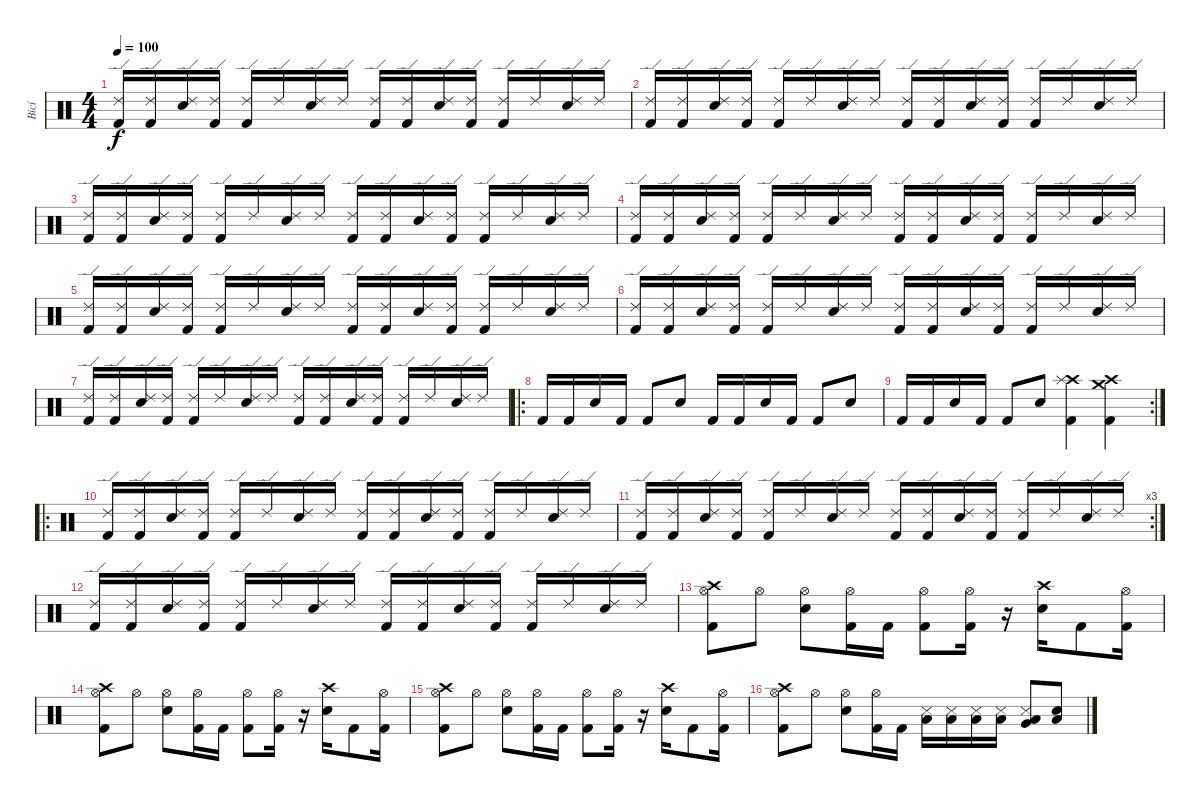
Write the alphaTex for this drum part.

\track ("Bicí" "Bicí") {instrument percussion}
\staff {score}
\articulation defaults
\ts (4 4)
\tempo 100
\clef neutral
\ks c
("Kick (hit) 2" "Ride (edge) 2").16{dy f} ("Kick (hit) 2" "Ride (edge) 2").16 ("Ride (edge) 2" "Snare (hit) 2").16 ("Kick (hit) 2" "Ride (edge) 2").16 ("Kick (hit) 2" "Ride (edge) 2").16 "Ride (edge) 2".16 ("Ride (edge) 2" "Snare (hit) 2").16 "Ride (edge) 2".16 ("Kick (hit) 2" "Ride (edge) 2").16 ("Kick (hit) 2" "Ride (edge) 2").16 ("Ride (edge) 2" "Snare (hit) 2").16 ("Kick (hit) 2" "Ride (edge) 2").16 ("Kick (hit) 2" "Ride (edge) 2").16 "Ride (edge) 2".16 ("Ride (edge) 2" "Snare (hit) 2").16 "Ride (edge) 2".16 |
("Kick (hit) 2" "Ride (edge) 2").16 ("Kick (hit) 2" "Ride (edge) 2").16 ("Ride (edge) 2" "Snare (hit) 2").16 ("Kick (hit) 2" "Ride (edge) 2").16 ("Kick (hit) 2" "Ride (edge) 2").16 "Ride (edge) 2".16 ("Ride (edge) 2" "Snare (hit) 2").16 "Ride (edge) 2".16 ("Kick (hit) 2" "Ride (edge) 2").16 ("Kick (hit) 2" "Ride (edge) 2").16 ("Ride (edge) 2" "Snare (hit) 2").16 ("Kick (hit) 2" "Ride (edge) 2").16 ("Kick (hit) 2" "Ride (edge) 2").16 "Ride (edge) 2".16 ("Ride (edge) 2" "Snare (hit) 2").16 "Ride (edge) 2".16 |
("Kick (hit) 2" "Ride (edge) 2").16 ("Kick (hit) 2" "Ride (edge) 2").16 ("Ride (edge) 2" "Snare (hit) 2").16 ("Kick (hit) 2" "Ride (edge) 2").16 ("Kick (hit) 2" "Ride (edge) 2").16 "Ride (edge) 2".16 ("Ride (edge) 2" "Snare (hit) 2").16 "Ride (edge) 2".16 ("Kick (hit) 2" "Ride (edge) 2").16 ("Kick (hit) 2" "Ride (edge) 2").16 ("Ride (edge) 2" "Snare (hit) 2").16 ("Kick (hit) 2" "Ride (edge) 2").16 ("Kick (hit) 2" "Ride (edge) 2").16 "Ride (edge) 2".16 ("Ride (edge) 2" "Snare (hit) 2").16 "Ride (edge) 2".16 |
("Kick (hit) 2" "Ride (edge) 2").16 ("Kick (hit) 2" "Ride (edge) 2").16 ("Ride (edge) 2" "Snare (hit) 2").16 ("Kick (hit) 2" "Ride (edge) 2").16 ("Kick (hit) 2" "Ride (edge) 2").16 "Ride (edge) 2".16 ("Ride (edge) 2" "Snare (hit) 2").16 "Ride (edge) 2".16 ("Kick (hit) 2" "Ride (edge) 2").16 ("Kick (hit) 2" "Ride (edge) 2").16 ("Ride (edge) 2" "Snare (hit) 2").16 ("Kick (hit) 2" "Ride (edge) 2").16 ("Kick (hit) 2" "Ride (edge) 2").16 "Ride (edge) 2".16 ("Ride (edge) 2" "Snare (hit) 2").16 "Ride (edge) 2".16 |
("Kick (hit) 2" "Ride (edge) 2").16 ("Kick (hit) 2" "Ride (edge) 2").16 ("Ride (edge) 2" "Snare (hit) 2").16 ("Kick (hit) 2" "Ride (edge) 2").16 ("Kick (hit) 2" "Ride (edge) 2").16 "Ride (edge) 2".16 ("Ride (edge) 2" "Snare (hit) 2").16 "Ride (edge) 2".16 ("Kick (hit) 2" "Ride (edge) 2").16 ("Kick (hit) 2" "Ride (edge) 2").16 ("Ride (edge) 2" "Snare (hit) 2").16 ("Kick (hit) 2" "Ride (edge) 2").16 ("Kick (hit) 2" "Ride (edge) 2").16 "Ride (edge) 2".16 ("Ride (edge) 2" "Snare (hit) 2").16 "Ride (edge) 2".16 |
("Kick (hit) 2" "Ride (edge) 2").16 ("Kick (hit) 2" "Ride (edge) 2").16 ("Ride (edge) 2" "Snare (hit) 2").16 ("Kick (hit) 2" "Ride (edge) 2").16 ("Kick (hit) 2" "Ride (edge) 2").16 "Ride (edge) 2".16 ("Ride (edge) 2" "Snare (hit) 2").16 "Ride (edge) 2".16 ("Kick (hit) 2" "Ride (edge) 2").16 ("Kick (hit) 2" "Ride (edge) 2").16 ("Ride (edge) 2" "Snare (hit) 2").16 ("Kick (hit) 2" "Ride (edge) 2").16 ("Kick (hit) 2" "Ride (edge) 2").16 "Ride (edge) 2".16 ("Ride (edge) 2" "Snare (hit) 2").16 "Ride (edge) 2".16 |
("Kick (hit) 2" "Ride (edge) 2").16 ("Kick (hit) 2" "Ride (edge) 2").16 ("Ride (edge) 2" "Snare (hit) 2").16 ("Kick (hit) 2" "Ride (edge) 2").16 ("Kick (hit) 2" "Ride (edge) 2").16 "Ride (edge) 2".16 ("Ride (edge) 2" "Snare (hit) 2").16 "Ride (edge) 2".16 ("Kick (hit) 2" "Ride (edge) 2").16 ("Kick (hit) 2" "Ride (edge) 2").16 ("Ride (edge) 2" "Snare (hit) 2").16 ("Kick (hit) 2" "Ride (edge) 2").16 ("Kick (hit) 2" "Ride (edge) 2").16 "Ride (edge) 2".16 ("Ride (edge) 2" "Snare (hit) 2").16 "Ride (edge) 2".16 |
\ro "Kick (hit) 2".16 "Kick (hit) 2".16 "Snare (hit) 2".16 "Kick (hit) 2".16 "Kick (hit) 2".8 "Snare (hit) 2".8 "Kick (hit) 2".16 "Kick (hit) 2".16 "Snare (hit) 2".16 "Kick (hit) 2".16 "Kick (hit) 2".8 "Snare (hit) 2".8
|
\rc 2 "Kick (hit) 2".16 "Kick (hit) 2".16 "Snare (hit) 2".16 "Kick (hit) 2".16 "Kick (hit) 2".8 "Snare (hit) 2".8
("Kick (hit) 2" "Crash high (hit)" "Splash (hit)").4 ("Kick (hit) 2" "Crash high (hit)" "Crash medium (hit)").4 |
\ro
("Kick (hit) 2" "Ride (edge) 2").16 ("Kick (hit) 2" "Ride (edge) 2").16 ("Ride (edge) 2" "Snare (hit) 2").16 ("Kick (hit) 2" "Ride (edge) 2").16 ("Kick (hit) 2" "Ride (edge) 2").16 "Ride (edge) 2".16 ("Ride (edge) 2" "Snare (hit) 2").16 "Ride (edge) 2".16 ("Kick (hit) 2" "Ride (edge) 2").16 ("Kick (hit) 2" "Ride (edge) 2").16 ("Ride (edge) 2" "Snare (hit) 2").16 ("Kick (hit) 2" "Ride (edge) 2").16 ("Kick (hit) 2" "Ride (edge) 2").16 "Ride (edge) 2".16 ("Ride (edge) 2" "Snare (hit) 2").16 "Ride (edge) 2".16 |
\rc 3
("Kick (hit) 2" "Ride (edge) 2").16 ("Kick (hit) 2" "Ride (edge) 2").16 ("Ride (edge) 2" "Snare (hit) 2").16 ("Kick (hit) 2" "Ride (edge) 2").16 ("Kick (hit) 2" "Ride (edge) 2").16 "Ride (edge) 2".16 ("Ride (edge) 2" "Snare (hit) 2").16 "Ride (edge) 2".16 ("Kick (hit) 2" "Ride (edge) 2").16 ("Kick (hit) 2" "Ride (edge) 2").16 ("Ride (edge) 2" "Snare (hit) 2").16 ("Kick (hit) 2" "Ride (edge) 2").16 ("Kick (hit) 2" "Ride (edge) 2").16 "Ride (edge) 2".16 ("Ride (edge) 2" "Snare (hit) 2").16 "Ride (edge) 2".16 |
("Kick (hit) 2" "Ride (edge) 2").16 ("Kick (hit) 2" "Ride (edge) 2").16 ("Ride (edge) 2" "Snare (hit) 2").16 ("Kick (hit) 2" "Ride (edge) 2").16 ("Kick (hit) 2" "Ride (edge) 2").16 "Ride (edge) 2".16 ("Ride (edge) 2" "Snare (hit) 2").16 "Ride (edge) 2".16 ("Kick (hit) 2" "Ride (edge) 2").16 ("Kick (hit) 2" "Ride (edge) 2").16 ("Ride (edge) 2" "Snare (hit) 2").16 ("Kick (hit) 2" "Ride (edge) 2").16 ("Kick (hit) 2" "Ride (edge) 2").16 "Ride (edge) 2".16 ("Ride (edge) 2" "Snare (hit) 2").16 "Ride (edge) 2".16 |
("Crash high (hit)" "Kick (hit) 2" "Hi-Hat (open)").8 "Hi-Hat (open)".8 ("Hi-Hat (open)" "Snare (hit) 2").8 ("Kick (hit) 2" "Hi-Hat (open)").16 "Kick (hit) 2".16 ("Kick (hit) 2" "Hi-Hat (open)").8 ("Kick (hit) 2" "Hi-Hat (open)").16 r.16 ("Crash high (hit)" "Snare (hit) 2").16 "Kick (hit) 2".8 ("Kick (hit) 2" "Hi-Hat (open)").16 |
("Crash high (hit)" "Kick (hit) 2" "Hi-Hat (open)").8 "Hi-Hat (open)".8 ("Hi-Hat (open)" "Snare (hit) 2").8 ("Kick (hit) 2" "Hi-Hat (open)").16 "Kick (hit) 2".16 ("Kick (hit) 2" "Hi-Hat (open)").8 ("Kick (hit) 2" "Hi-Hat (open)").16 r.16 ("Crash high (hit)" "Snare (hit) 2").16 "Kick (hit) 2".8 ("Kick (hit) 2" "Hi-Hat (open)").16 |
("Crash high (hit)" "Kick (hit) 2" "Hi-Hat (open)").8 "Hi-Hat (open)".8 ("Hi-Hat (open)" "Snare (hit) 2").8 ("Kick (hit) 2" "Hi-Hat (open)").16 "Kick (hit) 2".16 ("Kick (hit) 2" "Hi-Hat (open)").8 ("Kick (hit) 2" "Hi-Hat (open)").16 r.16 ("Crash high (hit)" "Snare (hit) 2").16 "Kick (hit) 2".8 ("Kick (hit) 2" "Hi-Hat (open)").16 |
("Crash high (hit)" "Kick (hit) 2" "Hi-Hat (open)").8 "Hi-Hat (open)".8 ("Hi-Hat (open)" "Snare (hit) 2").8 ("Kick (hit) 2" "Hi-Hat (open)").16 "Kick (hit) 2".16 ("Snare (side stick) 3" "Low Floor Tom (hit)").16 ("Snare (side stick) 3" "Low Floor Tom (hit)").16 ("Snare (side stick) 3" "Low Floor Tom (hit)").16 ("Snare (side stick) 3" "Low Floor Tom (hit)").16 ("Snare (side stick) 3" "Low Floor Tom (hit)" "Very Low Tom (hit)").8 ("Low Floor Tom (hit)" "Snare (hit) 2").8
